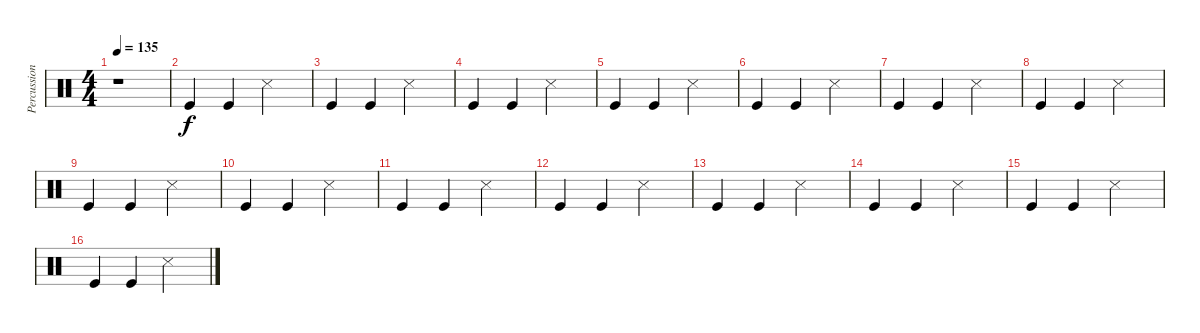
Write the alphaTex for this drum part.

\track ("Percussion1" "Percussion") {instrument percussion}
\staff {score}
\articulation defaults
\ts (4 4)
\tempo 135
\clef neutral
\ks c
r.1{dy f} |
"Kick (hit)".4 "Kick (hit)".4 "Snare (side stick) 3".2 |
"Kick (hit)".4 "Kick (hit)".4 "Snare (side stick) 3".2 |
"Kick (hit)".4 "Kick (hit)".4 "Snare (side stick) 3".2 |
"Kick (hit)".4 "Kick (hit)".4 "Snare (side stick) 3".2 |
"Kick (hit)".4 "Kick (hit)".4 "Snare (side stick) 3".2 |
"Kick (hit)".4 "Kick (hit)".4 "Snare (side stick) 3".2 |
"Kick (hit)".4 "Kick (hit)".4 "Snare (side stick) 3".2 |
"Kick (hit)".4 "Kick (hit)".4 "Snare (side stick) 3".2 |
"Kick (hit)".4 "Kick (hit)".4 "Snare (side stick) 3".2 |
"Kick (hit)".4 "Kick (hit)".4 "Snare (side stick) 3".2 |
"Kick (hit)".4 "Kick (hit)".4 "Snare (side stick) 3".2 |
"Kick (hit)".4 "Kick (hit)".4 "Snare (side stick) 3".2 |
"Kick (hit)".4 "Kick (hit)".4 "Snare (side stick) 3".2 |
"Kick (hit)".4 "Kick (hit)".4 "Snare (side stick) 3".2 |
"Kick (hit)".4 "Kick (hit)".4 "Snare (side stick) 3".2
